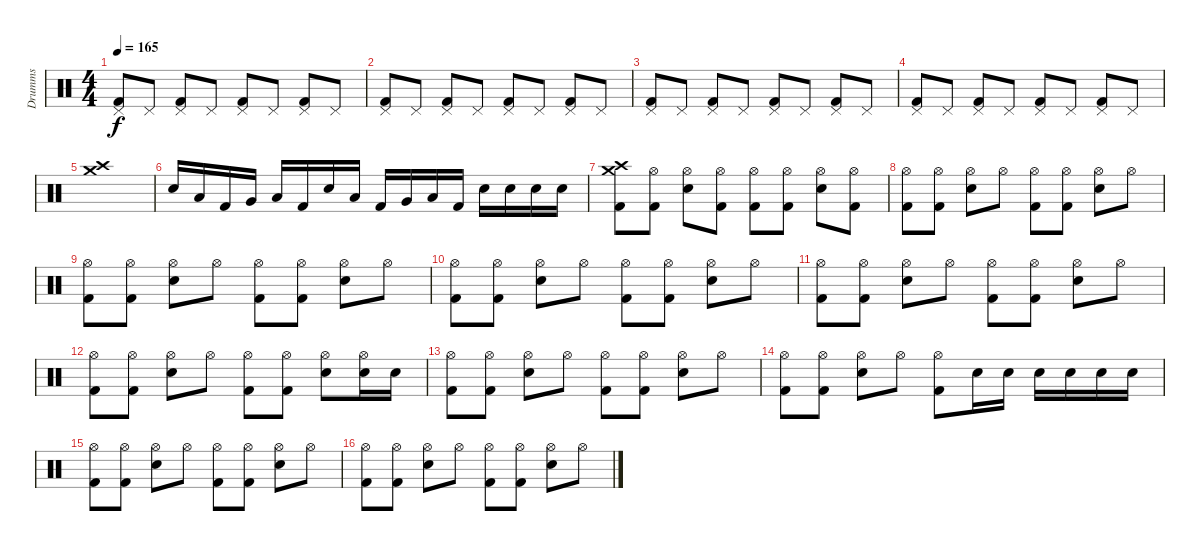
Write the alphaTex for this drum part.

\track ("Drumms" "Drumms") {instrument percussion}
\staff {score}
\articulation defaults
\ts (4 4)
\tempo 165
\clef neutral
\ks c
("Pedal Hi-Hat (hit)" "Kick (hit) 2").8{dy f} "Pedal Hi-Hat (hit)".8 ("Pedal Hi-Hat (hit)" "Kick (hit) 2").8 "Pedal Hi-Hat (hit)".8 ("Pedal Hi-Hat (hit)" "Kick (hit) 2").8 "Pedal Hi-Hat (hit)".8 ("Pedal Hi-Hat (hit)" "Kick (hit) 2").8 "Pedal Hi-Hat (hit)".8 |
("Pedal Hi-Hat (hit)" "Kick (hit) 2").8 "Pedal Hi-Hat (hit)".8 ("Pedal Hi-Hat (hit)" "Kick (hit) 2").8 "Pedal Hi-Hat (hit)".8 ("Pedal Hi-Hat (hit)" "Kick (hit) 2").8 "Pedal Hi-Hat (hit)".8 ("Pedal Hi-Hat (hit)" "Kick (hit) 2").8 "Pedal Hi-Hat (hit)".8 |
("Pedal Hi-Hat (hit)" "Kick (hit) 2").8 "Pedal Hi-Hat (hit)".8 ("Pedal Hi-Hat (hit)" "Kick (hit) 2").8 "Pedal Hi-Hat (hit)".8 ("Pedal Hi-Hat (hit)" "Kick (hit) 2").8 "Pedal Hi-Hat (hit)".8 ("Pedal Hi-Hat (hit)" "Kick (hit) 2").8 "Pedal Hi-Hat (hit)".8 |
("Pedal Hi-Hat (hit)" "Kick (hit) 2").8 "Pedal Hi-Hat (hit)".8 ("Pedal Hi-Hat (hit)" "Kick (hit) 2").8 "Pedal Hi-Hat (hit)".8 ("Pedal Hi-Hat (hit)" "Kick (hit) 2").8 "Pedal Hi-Hat (hit)".8 ("Pedal Hi-Hat (hit)" "Kick (hit) 2").8 "Pedal Hi-Hat (hit)".8 |
("Crash medium (hit)" "Crash high (hit)").1 |
"Electric Snare (hit)".16 "Low Tom (hit)".16 "Kick (hit) 2".16 "Very Low Tom (hit)".16 "Low Floor Tom (hit)".16 "Kick (hit) 2".16 "Electric Snare (hit)".16 "Low Tom (hit)".16 "Kick (hit) 2".16 "Very Low Tom (hit)".16 "Low Floor Tom (hit)".16 "Kick (hit) 2".16 "Electric Snare (hit)".16 "Electric Snare (hit)".16 "Electric Snare (hit)".16 "Electric Snare (hit)".16 |
("Crash medium (hit)" "Crash high (hit)" "Kick (hit) 2").8 ("Hi-Hat (open)" "Kick (hit) 2").8 ("Hi-Hat (open)" "Electric Snare (hit)").8 ("Hi-Hat (open)" "Kick (hit) 2").8 ("Hi-Hat (open)" "Kick (hit) 2").8 ("Hi-Hat (open)" "Kick (hit) 2").8 ("Hi-Hat (open)" "Electric Snare (hit)").8 ("Hi-Hat (open)" "Kick (hit) 2").8 |
("Hi-Hat (open)" "Kick (hit) 2").8 ("Hi-Hat (open)" "Kick (hit) 2").8 ("Hi-Hat (open)" "Electric Snare (hit)").8 "Hi-Hat (open)".8 ("Hi-Hat (open)" "Kick (hit) 2").8 ("Hi-Hat (open)" "Kick (hit) 2").8 ("Hi-Hat (open)" "Electric Snare (hit)").8 "Hi-Hat (open)".8 |
("Hi-Hat (open)" "Kick (hit) 2").8 ("Hi-Hat (open)" "Kick (hit) 2").8 ("Hi-Hat (open)" "Electric Snare (hit)").8 "Hi-Hat (open)".8 ("Hi-Hat (open)" "Kick (hit) 2").8 ("Hi-Hat (open)" "Kick (hit) 2").8 ("Hi-Hat (open)" "Electric Snare (hit)").8 "Hi-Hat (open)".8 |
("Hi-Hat (open)" "Kick (hit) 2").8 ("Hi-Hat (open)" "Kick (hit) 2").8 ("Hi-Hat (open)" "Electric Snare (hit)").8 "Hi-Hat (open)".8 ("Hi-Hat (open)" "Kick (hit) 2").8 ("Hi-Hat (open)" "Kick (hit) 2").8 ("Hi-Hat (open)" "Electric Snare (hit)").8 "Hi-Hat (open)".8 |
("Hi-Hat (open)" "Kick (hit) 2").8 ("Hi-Hat (open)" "Kick (hit) 2").8 ("Hi-Hat (open)" "Electric Snare (hit)").8 "Hi-Hat (open)".8 ("Hi-Hat (open)" "Kick (hit) 2").8 ("Hi-Hat (open)" "Kick (hit) 2").8 ("Hi-Hat (open)" "Electric Snare (hit)").8 "Hi-Hat (open)".8 |
("Hi-Hat (open)" "Kick (hit) 2").8 ("Hi-Hat (open)" "Kick (hit) 2").8 ("Hi-Hat (open)" "Electric Snare (hit)").8 "Hi-Hat (open)".8 ("Hi-Hat (open)" "Kick (hit) 2").8 ("Hi-Hat (open)" "Kick (hit) 2").8 ("Hi-Hat (open)" "Electric Snare (hit)").8 ("Hi-Hat (open)" "Electric Snare (hit)").16 "Electric Snare (hit)".16 |
("Hi-Hat (open)" "Kick (hit) 2").8 ("Hi-Hat (open)" "Kick (hit) 2").8 ("Hi-Hat (open)" "Electric Snare (hit)").8 "Hi-Hat (open)".8 ("Hi-Hat (open)" "Kick (hit) 2").8 ("Hi-Hat (open)" "Kick (hit) 2").8 ("Hi-Hat (open)" "Electric Snare (hit)").8 "Hi-Hat (open)".8 |
("Hi-Hat (open)" "Kick (hit) 2").8 ("Hi-Hat (open)" "Kick (hit) 2").8 ("Hi-Hat (open)" "Electric Snare (hit)").8 "Hi-Hat (open)".8 ("Hi-Hat (open)" "Kick (hit) 2").8 "Electric Snare (hit)".16 "Electric Snare (hit)".16 "Electric Snare (hit)".16 "Electric Snare (hit)".16 "Electric Snare (hit)".16 "Electric Snare (hit)".16 |
("Hi-Hat (open)" "Kick (hit) 2").8 ("Hi-Hat (open)" "Kick (hit) 2").8 ("Hi-Hat (open)" "Electric Snare (hit)").8 "Hi-Hat (open)".8 ("Hi-Hat (open)" "Kick (hit) 2").8 ("Hi-Hat (open)" "Kick (hit) 2").8 ("Hi-Hat (open)" "Electric Snare (hit)").8 "Hi-Hat (open)".8 |
("Hi-Hat (open)" "Kick (hit) 2").8 ("Hi-Hat (open)" "Kick (hit) 2").8 ("Hi-Hat (open)" "Electric Snare (hit)").8 "Hi-Hat (open)".8 ("Hi-Hat (open)" "Kick (hit) 2").8 ("Hi-Hat (open)" "Kick (hit) 2").8 ("Hi-Hat (open)" "Electric Snare (hit)").8 "Hi-Hat (open)".8
